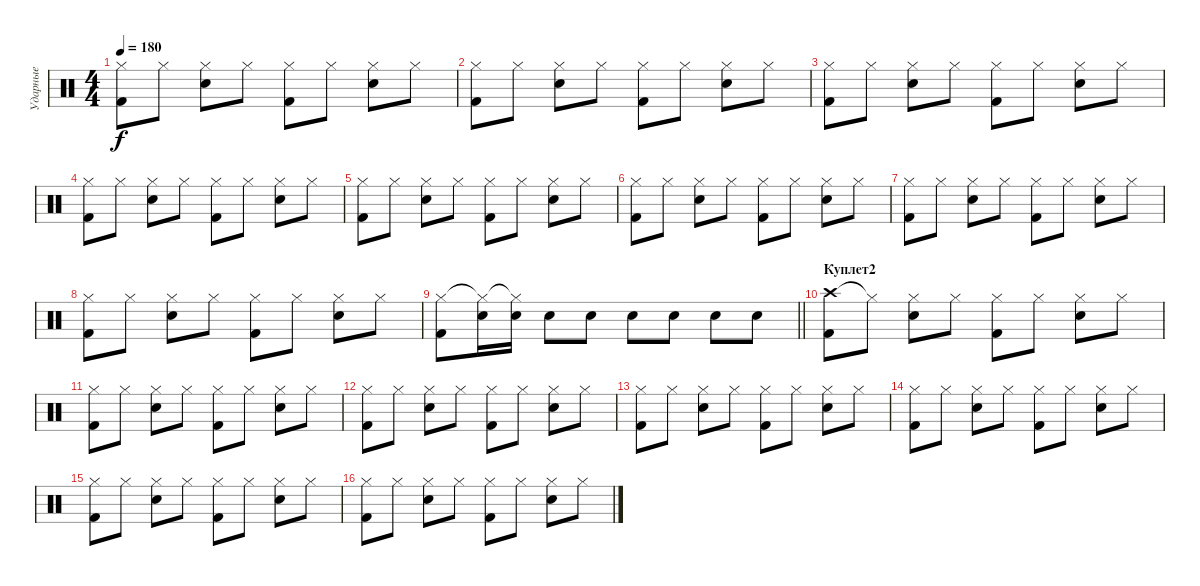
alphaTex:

\track ("Ударные" "Ударные") {instrument percussion}
\staff {score}
\articulation defaults
\ts (4 4)
\tempo 180
\clef neutral
\ks c
("Hi-Hat (closed)" "Kick (hit) 2").8{dy f} "Hi-Hat (closed)".8 ("Hi-Hat (closed)" "Electric Snare (hit)").8 "Hi-Hat (closed)".8 ("Hi-Hat (closed)" "Kick (hit) 2").8 "Hi-Hat (closed)".8 ("Hi-Hat (closed)" "Electric Snare (hit)").8 "Hi-Hat (closed)".8 |
("Hi-Hat (closed)" "Kick (hit) 2").8 "Hi-Hat (closed)".8 ("Hi-Hat (closed)" "Electric Snare (hit)").8 "Hi-Hat (closed)".8 ("Hi-Hat (closed)" "Kick (hit) 2").8 "Hi-Hat (closed)".8 ("Hi-Hat (closed)" "Electric Snare (hit)").8 "Hi-Hat (closed)".8 |
("Hi-Hat (closed)" "Kick (hit) 2").8 "Hi-Hat (closed)".8 ("Hi-Hat (closed)" "Electric Snare (hit)").8 "Hi-Hat (closed)".8 ("Hi-Hat (closed)" "Kick (hit) 2").8 "Hi-Hat (closed)".8 ("Hi-Hat (closed)" "Electric Snare (hit)").8 "Hi-Hat (closed)".8 |
("Hi-Hat (closed)" "Kick (hit) 2").8 "Hi-Hat (closed)".8 ("Hi-Hat (closed)" "Electric Snare (hit)").8 "Hi-Hat (closed)".8 ("Hi-Hat (closed)" "Kick (hit) 2").8 "Hi-Hat (closed)".8 ("Hi-Hat (closed)" "Electric Snare (hit)").8 "Hi-Hat (closed)".8 |
("Hi-Hat (closed)" "Kick (hit) 2").8 "Hi-Hat (closed)".8 ("Hi-Hat (closed)" "Electric Snare (hit)").8 "Hi-Hat (closed)".8 ("Hi-Hat (closed)" "Kick (hit) 2").8 "Hi-Hat (closed)".8 ("Hi-Hat (closed)" "Electric Snare (hit)").8 "Hi-Hat (closed)".8 |
("Hi-Hat (closed)" "Kick (hit) 2").8 "Hi-Hat (closed)".8 ("Hi-Hat (closed)" "Electric Snare (hit)").8 "Hi-Hat (closed)".8 ("Hi-Hat (closed)" "Kick (hit) 2").8 "Hi-Hat (closed)".8 ("Hi-Hat (closed)" "Electric Snare (hit)").8 "Hi-Hat (closed)".8 |
("Hi-Hat (closed)" "Kick (hit) 2").8 "Hi-Hat (closed)".8 ("Hi-Hat (closed)" "Electric Snare (hit)").8 "Hi-Hat (closed)".8 ("Hi-Hat (closed)" "Kick (hit) 2").8 "Hi-Hat (closed)".8 ("Hi-Hat (closed)" "Electric Snare (hit)").8 "Hi-Hat (closed)".8 |
("Hi-Hat (closed)" "Kick (hit) 2").8 "Hi-Hat (closed)".8 ("Hi-Hat (closed)" "Electric Snare (hit)").8 "Hi-Hat (closed)".8 ("Hi-Hat (closed)" "Kick (hit) 2").8 "Hi-Hat (closed)".8 ("Hi-Hat (closed)" "Electric Snare (hit)").8 "Hi-Hat (closed)".8 |
\barLineRight lightlight
("Hi-Hat (closed)" "Kick (hit) 2").8 ("Hi-Hat (closed)"{t} "Electric Snare (hit)").16 ("Hi-Hat (closed)"{t} "Electric Snare (hit)").16 "Electric Snare (hit)".8 "Electric Snare (hit)".8 "Electric Snare (hit)".8 "Electric Snare (hit)".8 "Electric Snare (hit)".8 "Electric Snare (hit)".8 |
\section ("" "Куплет2")
("Crash high (hit)" "Kick (hit) 2").8 "Hi-Hat (closed)"{t}.8 ("Hi-Hat (closed)" "Electric Snare (hit)").8 "Hi-Hat (closed)".8 ("Hi-Hat (closed)" "Kick (hit) 2").8 "Hi-Hat (closed)".8 ("Hi-Hat (closed)" "Electric Snare (hit)").8 "Hi-Hat (closed)".8 |
("Hi-Hat (closed)" "Kick (hit) 2").8 "Hi-Hat (closed)".8 ("Hi-Hat (closed)" "Electric Snare (hit)").8 "Hi-Hat (closed)".8 ("Hi-Hat (closed)" "Kick (hit) 2").8 "Hi-Hat (closed)".8 ("Hi-Hat (closed)" "Electric Snare (hit)").8 "Hi-Hat (closed)".8 |
("Hi-Hat (closed)" "Kick (hit) 2").8 "Hi-Hat (closed)".8 ("Hi-Hat (closed)" "Electric Snare (hit)").8 "Hi-Hat (closed)".8 ("Hi-Hat (closed)" "Kick (hit) 2").8 "Hi-Hat (closed)".8 ("Hi-Hat (closed)" "Electric Snare (hit)").8 "Hi-Hat (closed)".8 |
("Hi-Hat (closed)" "Kick (hit) 2").8 "Hi-Hat (closed)".8 ("Hi-Hat (closed)" "Electric Snare (hit)").8 "Hi-Hat (closed)".8 ("Hi-Hat (closed)" "Kick (hit) 2").8 "Hi-Hat (closed)".8 ("Hi-Hat (closed)" "Electric Snare (hit)").8 "Hi-Hat (closed)".8 |
("Hi-Hat (closed)" "Kick (hit) 2").8 "Hi-Hat (closed)".8 ("Hi-Hat (closed)" "Electric Snare (hit)").8 "Hi-Hat (closed)".8 ("Hi-Hat (closed)" "Kick (hit) 2").8 "Hi-Hat (closed)".8 ("Hi-Hat (closed)" "Electric Snare (hit)").8 "Hi-Hat (closed)".8 |
("Hi-Hat (closed)" "Kick (hit) 2").8 "Hi-Hat (closed)".8 ("Hi-Hat (closed)" "Electric Snare (hit)").8 "Hi-Hat (closed)".8 ("Hi-Hat (closed)" "Kick (hit) 2").8 "Hi-Hat (closed)".8 ("Hi-Hat (closed)" "Electric Snare (hit)").8 "Hi-Hat (closed)".8 |
("Hi-Hat (closed)" "Kick (hit) 2").8 "Hi-Hat (closed)".8 ("Hi-Hat (closed)" "Electric Snare (hit)").8 "Hi-Hat (closed)".8 ("Hi-Hat (closed)" "Kick (hit) 2").8 "Hi-Hat (closed)".8 ("Hi-Hat (closed)" "Electric Snare (hit)").8 "Hi-Hat (closed)".8
